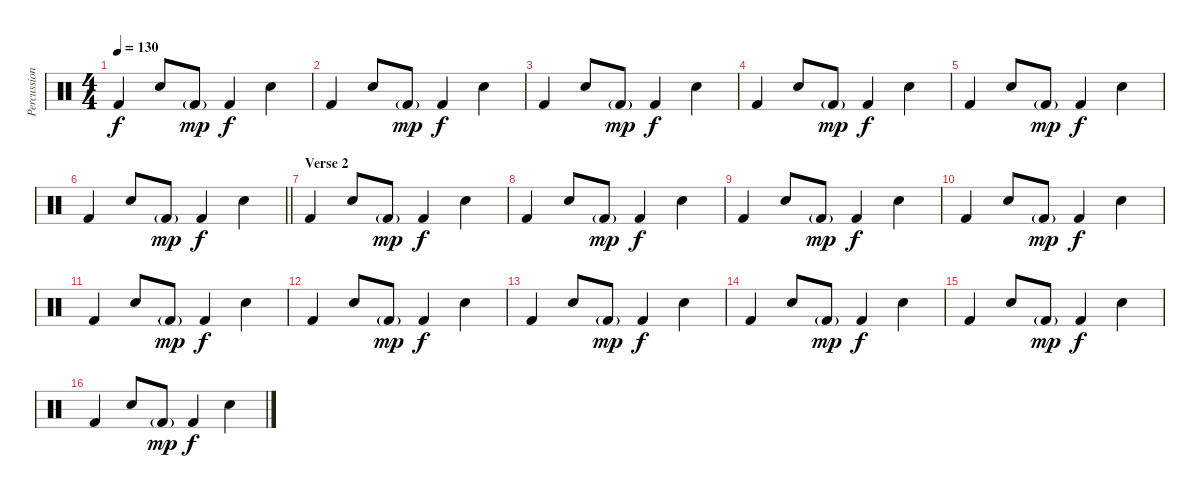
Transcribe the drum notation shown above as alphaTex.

\track ("Percussion" "Percussion") {instrument percussion}
\staff {score}
\articulation defaults
\ts (4 4)
\tempo 130
\clef neutral
\ks c "Kick (hit) 2".4{dy f} "Snare (hit) 2".8 "Kick (hit) 2"{g}.8{dy mp} "Kick (hit) 2".4{dy f} "Snare (hit) 2".4
|
"Kick (hit) 2".4 "Snare (hit) 2".8 "Kick (hit) 2"{g}.8{dy mp} "Kick (hit) 2".4{dy f} "Snare (hit) 2".4 |
"Kick (hit) 2".4 "Snare (hit) 2".8 "Kick (hit) 2"{g}.8{dy mp} "Kick (hit) 2".4{dy f} "Snare (hit) 2".4 |
"Kick (hit) 2".4 "Snare (hit) 2".8 "Kick (hit) 2"{g}.8{dy mp} "Kick (hit) 2".4{dy f} "Snare (hit) 2".4 |
"Kick (hit) 2".4 "Snare (hit) 2".8 "Kick (hit) 2"{g}.8{dy mp} "Kick (hit) 2".4{dy f} "Snare (hit) 2".4 |
\barLineRight lightlight "Kick (hit) 2".4 "Snare (hit) 2".8 "Kick (hit) 2"{g}.8{dy mp} "Kick (hit) 2".4{dy f} "Snare (hit) 2".4
|
\section ("" "Verse 2")
"Kick (hit) 2".4 "Snare (hit) 2".8 "Kick (hit) 2"{g}.8{dy mp} "Kick (hit) 2".4{dy f} "Snare (hit) 2".4 |
"Kick (hit) 2".4 "Snare (hit) 2".8 "Kick (hit) 2"{g}.8{dy mp} "Kick (hit) 2".4{dy f} "Snare (hit) 2".4 |
"Kick (hit) 2".4 "Snare (hit) 2".8 "Kick (hit) 2"{g}.8{dy mp} "Kick (hit) 2".4{dy f} "Snare (hit) 2".4 |
"Kick (hit) 2".4 "Snare (hit) 2".8 "Kick (hit) 2"{g}.8{dy mp} "Kick (hit) 2".4{dy f} "Snare (hit) 2".4 |
"Kick (hit) 2".4 "Snare (hit) 2".8 "Kick (hit) 2"{g}.8{dy mp} "Kick (hit) 2".4{dy f} "Snare (hit) 2".4 |
"Kick (hit) 2".4 "Snare (hit) 2".8 "Kick (hit) 2"{g}.8{dy mp} "Kick (hit) 2".4{dy f} "Snare (hit) 2".4 |
"Kick (hit) 2".4 "Snare (hit) 2".8 "Kick (hit) 2"{g}.8{dy mp} "Kick (hit) 2".4{dy f} "Snare (hit) 2".4 |
"Kick (hit) 2".4 "Snare (hit) 2".8 "Kick (hit) 2"{g}.8{dy mp} "Kick (hit) 2".4{dy f} "Snare (hit) 2".4 |
"Kick (hit) 2".4 "Snare (hit) 2".8 "Kick (hit) 2"{g}.8{dy mp} "Kick (hit) 2".4{dy f} "Snare (hit) 2".4 |
"Kick (hit) 2".4 "Snare (hit) 2".8 "Kick (hit) 2"{g}.8{dy mp} "Kick (hit) 2".4{dy f} "Snare (hit) 2".4
